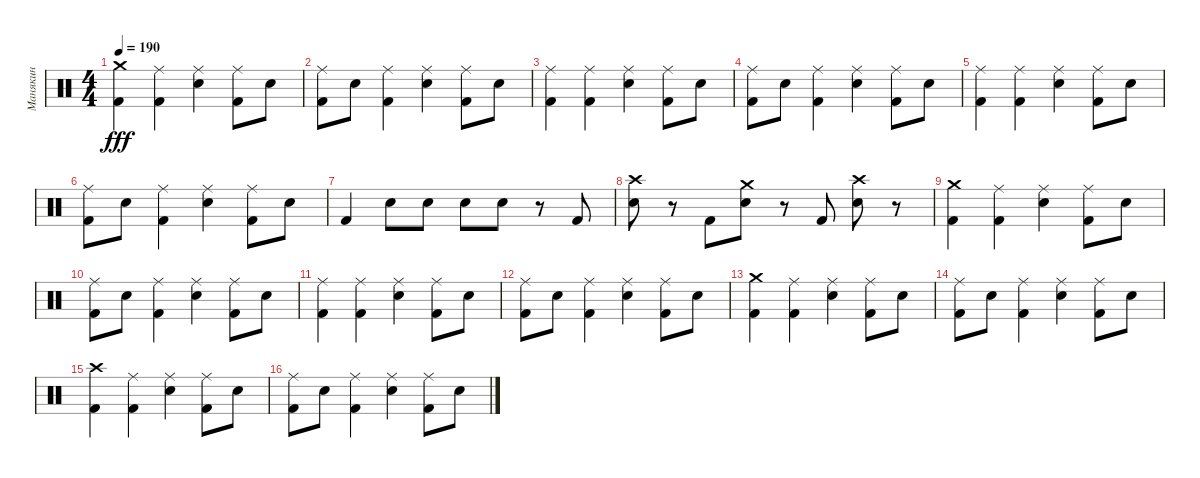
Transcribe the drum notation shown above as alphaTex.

\track ("Манякин" "Манякин") {instrument percussion}
\staff {score}
\articulation defaults
\ts (4 4)
\tempo 190
\clef neutral
\ks c
("Kick (hit) 2" "Crash medium (hit)").4{dy fff} ("Kick (hit) 2" "Ride (middle)").4 ("Snare (hit) 2" "Ride (middle)").4 ("Kick (hit) 2" "Ride (middle)").8 "Snare (hit) 2".8 |
("Kick (hit) 2" "Ride (middle)").8 "Snare (hit) 2".8 ("Kick (hit) 2" "Ride (middle)").4 ("Snare (hit) 2" "Ride (middle)").4 ("Kick (hit) 2" "Ride (middle)").8 "Snare (hit) 2".8 |
("Kick (hit) 2" "Ride (middle)").4 ("Kick (hit) 2" "Ride (middle)").4 ("Snare (hit) 2" "Ride (middle)").4 ("Kick (hit) 2" "Ride (middle)").8 "Snare (hit) 2".8 |
("Kick (hit) 2" "Ride (middle)").8 "Snare (hit) 2".8 ("Kick (hit) 2" "Ride (middle)").4 ("Snare (hit) 2" "Ride (middle)").4 ("Kick (hit) 2" "Ride (middle)").8 "Snare (hit) 2".8 |
("Kick (hit) 2" "Ride (middle)").4 ("Kick (hit) 2" "Ride (middle)").4 ("Snare (hit) 2" "Ride (middle)").4 ("Kick (hit) 2" "Ride (middle)").8 "Snare (hit) 2".8 |
("Kick (hit) 2" "Ride (middle)").8 "Snare (hit) 2".8 ("Kick (hit) 2" "Ride (middle)").4 ("Snare (hit) 2" "Ride (middle)").4 ("Kick (hit) 2" "Ride (middle)").8 "Snare (hit) 2".8 |
"Kick (hit) 2".4 "Snare (hit) 2".8 "Snare (hit) 2".8 "Snare (hit) 2".8 "Snare (hit) 2".8 r.8 "Kick (hit) 2".8 |
("Snare (hit) 2" "Crash high (hit)").8 r.8 "Kick (hit) 2".8 ("Crash medium (hit)" "Snare (hit) 2").8 r.8 "Kick (hit) 2".8 ("Crash high (hit)" "Snare (hit) 2").8 r.8 |
("Kick (hit) 2" "Crash medium (hit)").4 ("Kick (hit) 2" "Ride (middle)").4 ("Snare (hit) 2" "Ride (middle)").4 ("Kick (hit) 2" "Ride (middle)").8 "Snare (hit) 2".8 |
("Kick (hit) 2" "Ride (middle)").8 "Snare (hit) 2".8 ("Kick (hit) 2" "Ride (middle)").4 ("Snare (hit) 2" "Ride (middle)").4 ("Kick (hit) 2" "Ride (middle)").8 "Snare (hit) 2".8 |
("Kick (hit) 2" "Ride (middle)").4 ("Kick (hit) 2" "Ride (middle)").4 ("Snare (hit) 2" "Ride (middle)").4 ("Kick (hit) 2" "Ride (middle)").8 "Snare (hit) 2".8 |
("Kick (hit) 2" "Ride (middle)").8 "Snare (hit) 2".8 ("Kick (hit) 2" "Ride (middle)").4 ("Snare (hit) 2" "Ride (middle)").4 ("Kick (hit) 2" "Ride (middle)").8 "Snare (hit) 2".8 |
("Kick (hit) 2" "Crash medium (hit)").4 ("Kick (hit) 2" "Ride (middle)").4 ("Snare (hit) 2" "Ride (middle)").4 ("Kick (hit) 2" "Ride (middle)").8 "Snare (hit) 2".8 |
("Kick (hit) 2" "Ride (middle)").8 "Snare (hit) 2".8 ("Kick (hit) 2" "Ride (middle)").4 ("Snare (hit) 2" "Ride (middle)").4 ("Kick (hit) 2" "Ride (middle)").8 "Snare (hit) 2".8 |
("Kick (hit) 2" "Crash high (hit)").4 ("Kick (hit) 2" "Ride (middle)").4 ("Snare (hit) 2" "Ride (middle)").4 ("Kick (hit) 2" "Ride (middle)").8 "Snare (hit) 2".8 |
("Kick (hit) 2" "Ride (middle)").8 "Snare (hit) 2".8 ("Kick (hit) 2" "Ride (middle)").4 ("Snare (hit) 2" "Ride (middle)").4 ("Kick (hit) 2" "Ride (middle)").8 "Snare (hit) 2".8
